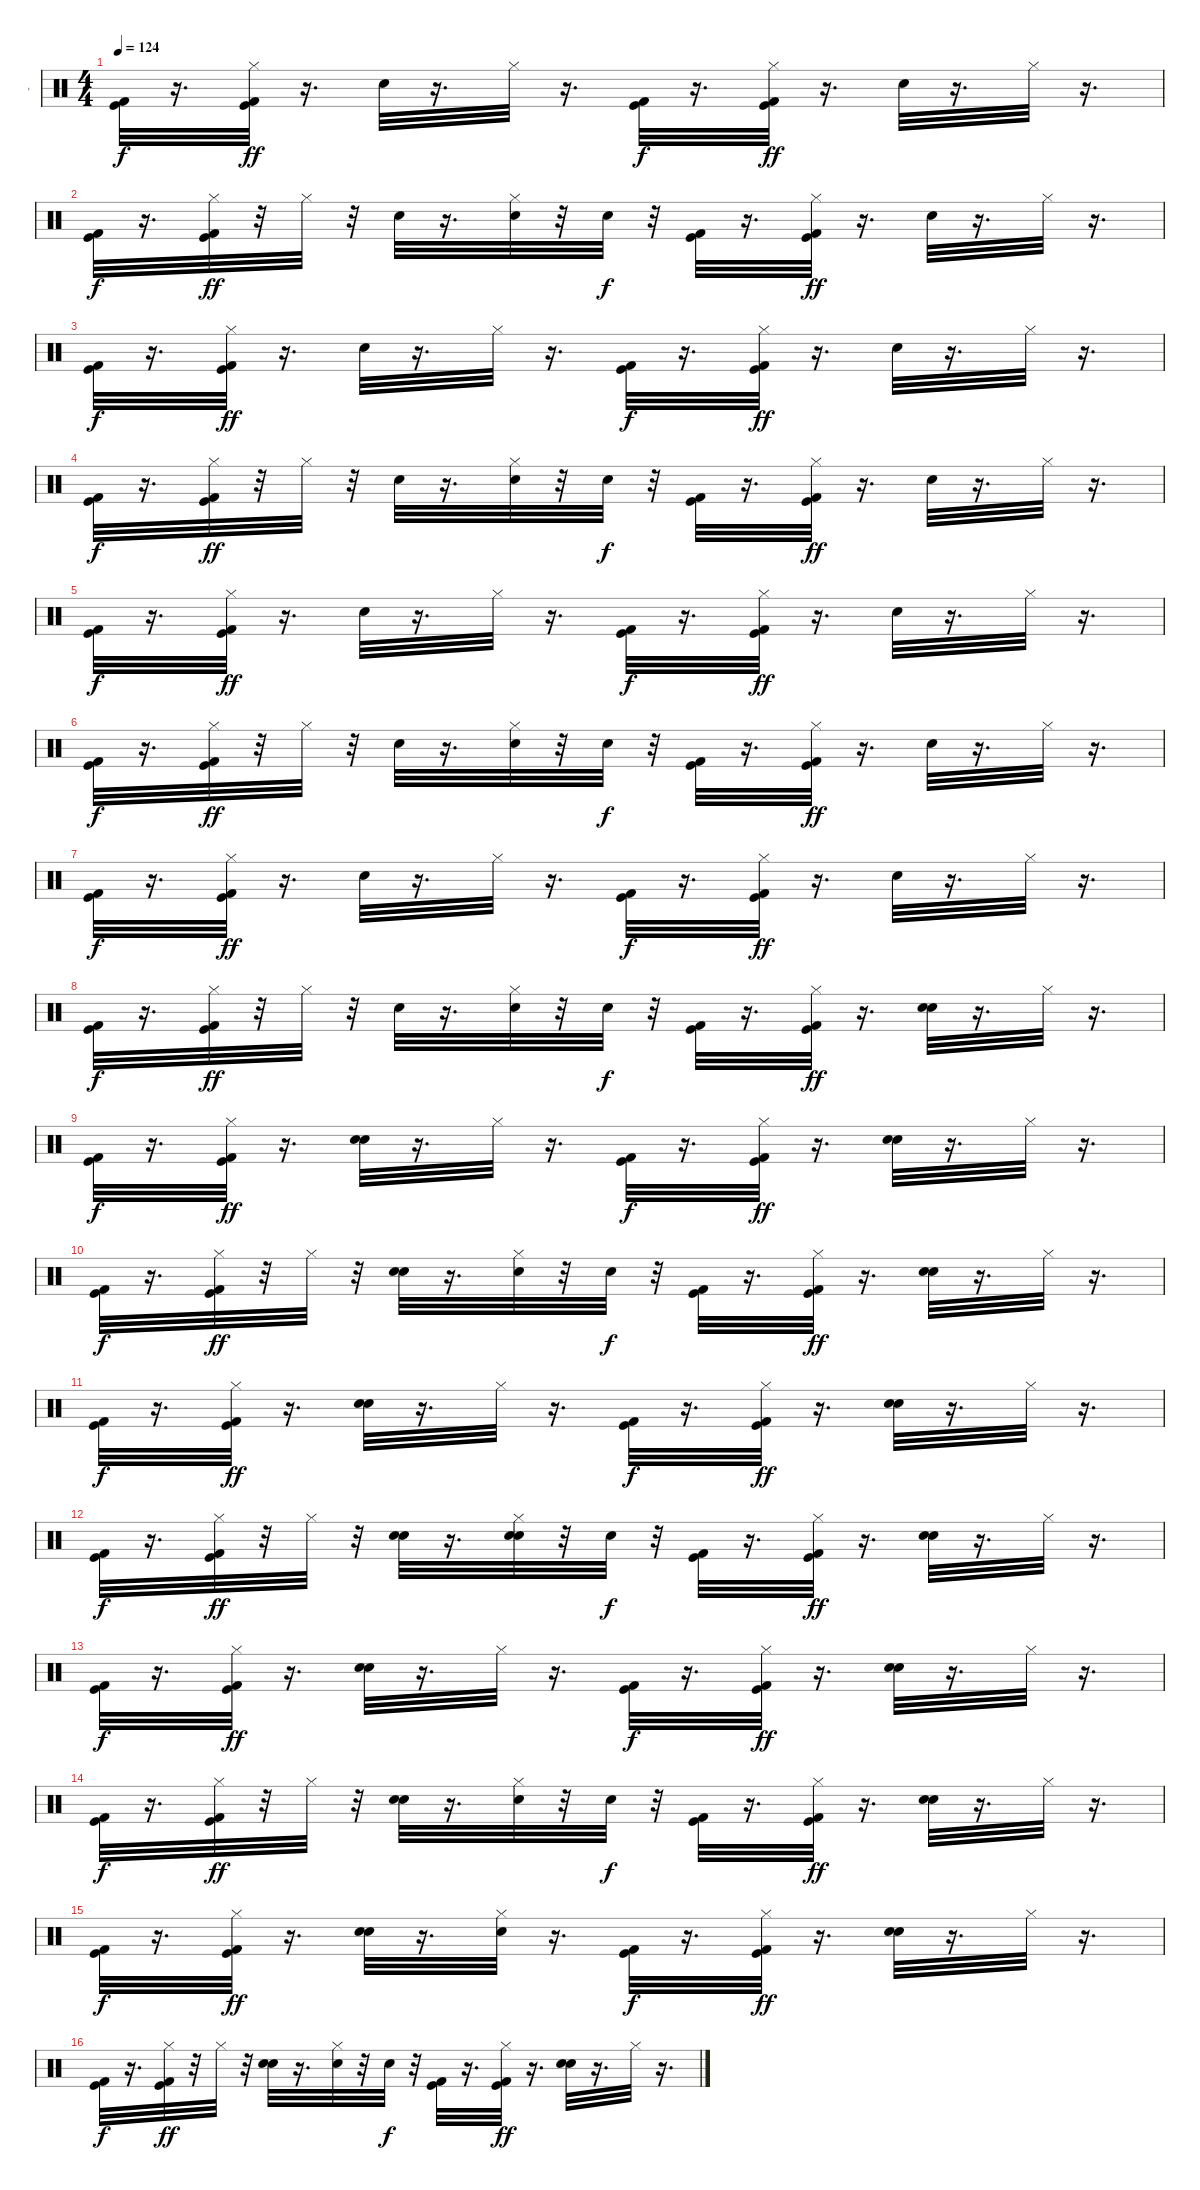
\track ("-" "-") {instrument percussion}
\staff {score}
\articulation defaults
\ts (4 4)
\tempo 124
\clef neutral
\ks c
("Kick (hit)" "Kick (hit) 2").32{dy f} r.16{d} ("Kick (hit)" "Kick (hit) 2" "Hi-Hat (closed)").32{dy ff} r.16{d} "Snare (hit) 2".32 r.16{d} "Hi-Hat (closed)".32 r.16{d} ("Kick (hit)" "Kick (hit) 2").32{dy f} r.16{d} ("Kick (hit)" "Kick (hit) 2" "Hi-Hat (closed)").32{dy ff} r.16{d} "Snare (hit) 2".32 r.16{d} "Hi-Hat (closed)".32 r.16{d} |
("Kick (hit)" "Kick (hit) 2").32{dy f} r.16{d} ("Kick (hit)" "Kick (hit) 2" "Hi-Hat (closed)").32{dy ff} r.32 "Hi-Hat (closed)".32 r.32 "Snare (hit) 2".32 r.16{d} ("Snare (hit) 2" "Hi-Hat (closed)").32 r.32 "Snare (hit) 2".32{dy f} r.32 ("Kick (hit)" "Kick (hit) 2").32 r.16{d} ("Kick (hit)" "Kick (hit) 2" "Hi-Hat (closed)").32{dy ff} r.16{d} "Snare (hit) 2".32 r.16{d} "Hi-Hat (closed)".32 r.16{d} |
("Kick (hit)" "Kick (hit) 2").32{dy f} r.16{d} ("Kick (hit)" "Kick (hit) 2" "Hi-Hat (closed)").32{dy ff} r.16{d} "Snare (hit) 2".32 r.16{d} "Hi-Hat (closed)".32 r.16{d} ("Kick (hit)" "Kick (hit) 2").32{dy f} r.16{d} ("Kick (hit)" "Kick (hit) 2" "Hi-Hat (closed)").32{dy ff} r.16{d} "Snare (hit) 2".32 r.16{d} "Hi-Hat (closed)".32 r.16{d} |
("Kick (hit)" "Kick (hit) 2").32{dy f} r.16{d} ("Kick (hit)" "Kick (hit) 2" "Hi-Hat (closed)").32{dy ff} r.32 "Hi-Hat (closed)".32 r.32 "Snare (hit) 2".32 r.16{d} ("Snare (hit) 2" "Hi-Hat (closed)").32 r.32 "Snare (hit) 2".32{dy f} r.32 ("Kick (hit)" "Kick (hit) 2").32 r.16{d} ("Kick (hit)" "Kick (hit) 2" "Hi-Hat (closed)").32{dy ff} r.16{d} "Snare (hit) 2".32 r.16{d} "Hi-Hat (closed)".32 r.16{d} |
("Kick (hit)" "Kick (hit) 2").32{dy f} r.16{d} ("Kick (hit)" "Kick (hit) 2" "Hi-Hat (closed)").32{dy ff} r.16{d} "Snare (hit) 2".32 r.16{d} "Hi-Hat (closed)".32 r.16{d} ("Kick (hit)" "Kick (hit) 2").32{dy f} r.16{d} ("Kick (hit)" "Kick (hit) 2" "Hi-Hat (closed)").32{dy ff} r.16{d} "Snare (hit) 2".32 r.16{d} "Hi-Hat (closed)".32 r.16{d} |
("Kick (hit)" "Kick (hit) 2").32{dy f} r.16{d} ("Kick (hit)" "Kick (hit) 2" "Hi-Hat (closed)").32{dy ff} r.32 "Hi-Hat (closed)".32 r.32 "Snare (hit) 2".32 r.16{d} ("Snare (hit) 2" "Hi-Hat (closed)").32 r.32 "Snare (hit) 2".32{dy f} r.32 ("Kick (hit)" "Kick (hit) 2").32 r.16{d} ("Kick (hit)" "Kick (hit) 2" "Hi-Hat (closed)").32{dy ff} r.16{d} "Snare (hit) 2".32 r.16{d} "Hi-Hat (closed)".32 r.16{d} |
("Kick (hit)" "Kick (hit) 2").32{dy f} r.16{d} ("Kick (hit)" "Kick (hit) 2" "Hi-Hat (closed)").32{dy ff} r.16{d} "Snare (hit) 2".32 r.16{d} "Hi-Hat (closed)".32 r.16{d} ("Kick (hit)" "Kick (hit) 2").32{dy f} r.16{d} ("Kick (hit)" "Kick (hit) 2" "Hi-Hat (closed)").32{dy ff} r.16{d} "Snare (hit) 2".32 r.16{d} "Hi-Hat (closed)".32 r.16{d} |
("Kick (hit)" "Kick (hit) 2").32{dy f} r.16{d} ("Kick (hit)" "Kick (hit) 2" "Hi-Hat (closed)").32{dy ff} r.32 "Hi-Hat (closed)".32 r.32 "Snare (hit) 2".32 r.16{d} ("Snare (hit) 2" "Hi-Hat (closed)").32 r.32 "Snare (hit) 2".32{dy f} r.32 ("Kick (hit)" "Kick (hit) 2").32 r.16{d} ("Kick (hit)" "Kick (hit) 2" "Hi-Hat (closed)").32{dy ff} r.16{d} ("Snare (hit) 2" "Hand Clap (hit)").32 r.16{d} "Hi-Hat (closed)".32 r.16{d} |
("Kick (hit)" "Kick (hit) 2").32{dy f} r.16{d} ("Kick (hit)" "Kick (hit) 2" "Hi-Hat (closed)").32{dy ff} r.16{d} ("Snare (hit) 2" "Hand Clap (hit)").32 r.16{d} "Hi-Hat (closed)".32 r.16{d} ("Kick (hit)" "Kick (hit) 2").32{dy f} r.16{d} ("Kick (hit)" "Kick (hit) 2" "Hi-Hat (closed)").32{dy ff} r.16{d} ("Snare (hit) 2" "Hand Clap (hit)").32 r.16{d} "Hi-Hat (closed)".32 r.16{d} |
("Kick (hit)" "Kick (hit) 2").32{dy f} r.16{d} ("Kick (hit)" "Kick (hit) 2" "Hi-Hat (closed)").32{dy ff} r.32 "Hi-Hat (closed)".32 r.32 ("Snare (hit) 2" "Hand Clap (hit)").32 r.16{d} ("Snare (hit) 2" "Hi-Hat (closed)").32 r.32 "Snare (hit) 2".32{dy f} r.32 ("Kick (hit)" "Kick (hit) 2").32 r.16{d} ("Kick (hit)" "Kick (hit) 2" "Hi-Hat (closed)").32{dy ff} r.16{d} ("Snare (hit) 2" "Hand Clap (hit)").32 r.16{d} "Hi-Hat (closed)".32 r.16{d} |
("Kick (hit)" "Kick (hit) 2").32{dy f} r.16{d} ("Kick (hit)" "Kick (hit) 2" "Hi-Hat (closed)").32{dy ff} r.16{d} ("Snare (hit) 2" "Hand Clap (hit)").32 r.16{d} "Hi-Hat (closed)".32 r.16{d} ("Kick (hit)" "Kick (hit) 2").32{dy f} r.16{d} ("Kick (hit)" "Kick (hit) 2" "Hi-Hat (closed)").32{dy ff} r.16{d} ("Snare (hit) 2" "Hand Clap (hit)").32 r.16{d} "Hi-Hat (closed)".32 r.16{d} |
("Kick (hit)" "Kick (hit) 2").32{dy f} r.16{d} ("Kick (hit)" "Kick (hit) 2" "Hi-Hat (closed)").32{dy ff} r.32 "Hi-Hat (closed)".32 r.32 ("Snare (hit) 2" "Hand Clap (hit)").32 r.16{d} ("Snare (hit) 2" "Hand Clap (hit)" "Hi-Hat (closed)").32 r.32 "Snare (hit) 2".32{dy f} r.32 ("Kick (hit)" "Kick (hit) 2").32 r.16{d} ("Kick (hit)" "Kick (hit) 2" "Hi-Hat (closed)").32{dy ff} r.16{d} ("Snare (hit) 2" "Hand Clap (hit)").32 r.16{d} "Hi-Hat (closed)".32 r.16{d} |
("Kick (hit)" "Kick (hit) 2").32{dy f} r.16{d} ("Kick (hit)" "Kick (hit) 2" "Hi-Hat (closed)").32{dy ff} r.16{d} ("Snare (hit) 2" "Hand Clap (hit)").32 r.16{d} "Hi-Hat (closed)".32 r.16{d} ("Kick (hit)" "Kick (hit) 2").32{dy f} r.16{d} ("Kick (hit)" "Kick (hit) 2" "Hi-Hat (closed)").32{dy ff} r.16{d} ("Snare (hit) 2" "Hand Clap (hit)").32 r.16{d} "Hi-Hat (closed)".32 r.16{d} |
("Kick (hit)" "Kick (hit) 2").32{dy f} r.16{d} ("Kick (hit)" "Kick (hit) 2" "Hi-Hat (closed)").32{dy ff} r.32 "Hi-Hat (closed)".32 r.32 ("Snare (hit) 2" "Hand Clap (hit)").32 r.16{d} ("Snare (hit) 2" "Hi-Hat (closed)").32 r.32 "Snare (hit) 2".32{dy f} r.32 ("Kick (hit)" "Kick (hit) 2").32 r.16{d} ("Kick (hit)" "Kick (hit) 2" "Hi-Hat (closed)").32{dy ff} r.16{d} ("Snare (hit) 2" "Hand Clap (hit)").32 r.16{d} "Hi-Hat (closed)".32 r.16{d} |
("Kick (hit)" "Kick (hit) 2").32{dy f} r.16{d} ("Kick (hit)" "Kick (hit) 2" "Hi-Hat (closed)").32{dy ff} r.16{d} ("Snare (hit) 2" "Hand Clap (hit)").32 r.16{d} ("Hand Clap (hit)" "Hi-Hat (closed)").32 r.16{d} ("Kick (hit)" "Kick (hit) 2").32{dy f} r.16{d} ("Kick (hit)" "Kick (hit) 2" "Hi-Hat (closed)").32{dy ff} r.16{d} ("Snare (hit) 2" "Hand Clap (hit)").32 r.16{d} "Hi-Hat (closed)".32 r.16{d} |
("Kick (hit)" "Kick (hit) 2").32{dy f} r.16{d} ("Kick (hit)" "Kick (hit) 2" "Hi-Hat (closed)").32{dy ff} r.32 "Hi-Hat (closed)".32 r.32 ("Snare (hit) 2" "Hand Clap (hit)").32 r.16{d} ("Snare (hit) 2" "Hi-Hat (closed)").32 r.32 "Snare (hit) 2".32{dy f} r.32 ("Kick (hit)" "Kick (hit) 2").32 r.16{d} ("Kick (hit)" "Kick (hit) 2" "Hi-Hat (closed)").32{dy ff} r.16{d} ("Snare (hit) 2" "Hand Clap (hit)").32 r.16{d} "Hi-Hat (closed)".32 r.16{d}
